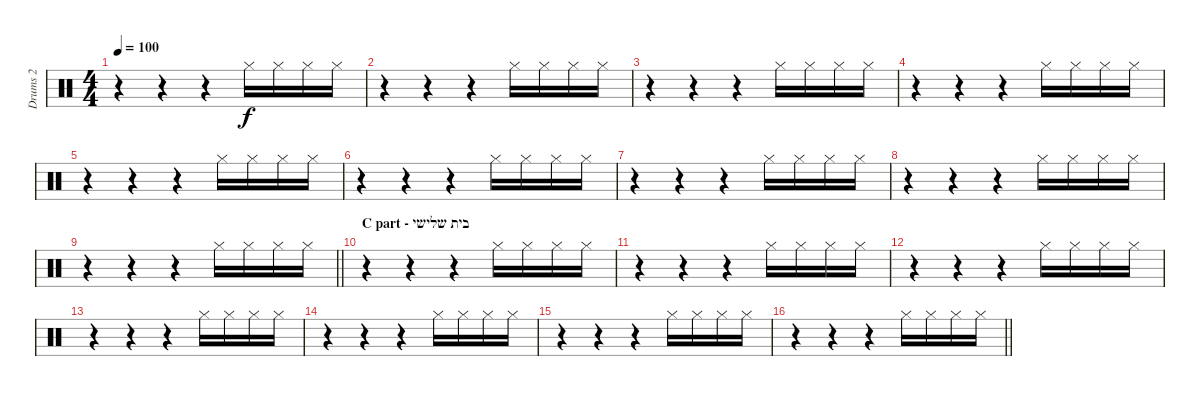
\track ("Drums 2" "Drums 2") {instrument percussion}
\staff {score}
\articulation defaults
\ts (4 4)
\tempo 100
\clef neutral
\ks c
r.4{dy f} r.4 r.4 "Hi-Hat (closed)".16 "Hi-Hat (closed)".16 "Hi-Hat (closed)".16 "Hi-Hat (closed)".16 |
r.4 r.4 r.4 "Hi-Hat (closed)".16 "Hi-Hat (closed)".16 "Hi-Hat (closed)".16 "Hi-Hat (closed)".16 |
r.4 r.4 r.4 "Hi-Hat (closed)".16 "Hi-Hat (closed)".16 "Hi-Hat (closed)".16 "Hi-Hat (closed)".16 |
r.4 r.4 r.4 "Hi-Hat (closed)".16 "Hi-Hat (closed)".16 "Hi-Hat (closed)".16 "Hi-Hat (closed)".16 |
r.4 r.4 r.4 "Hi-Hat (closed)".16 "Hi-Hat (closed)".16 "Hi-Hat (closed)".16 "Hi-Hat (closed)".16 |
r.4 r.4 r.4 "Hi-Hat (closed)".16 "Hi-Hat (closed)".16 "Hi-Hat (closed)".16 "Hi-Hat (closed)".16 |
r.4 r.4 r.4 "Hi-Hat (closed)".16 "Hi-Hat (closed)".16 "Hi-Hat (closed)".16 "Hi-Hat (closed)".16 |
r.4 r.4 r.4 "Hi-Hat (closed)".16 "Hi-Hat (closed)".16 "Hi-Hat (closed)".16 "Hi-Hat (closed)".16 |
\barLineRight lightlight
r.4 r.4 r.4 "Hi-Hat (closed)".16 "Hi-Hat (closed)".16 "Hi-Hat (closed)".16 "Hi-Hat (closed)".16 |
\section ("" "C part - בית שלישי")
r.4 r.4 r.4 "Hi-Hat (closed)".16 "Hi-Hat (closed)".16 "Hi-Hat (closed)".16 "Hi-Hat (closed)".16 |
r.4 r.4 r.4 "Hi-Hat (closed)".16 "Hi-Hat (closed)".16 "Hi-Hat (closed)".16 "Hi-Hat (closed)".16 |
r.4 r.4 r.4 "Hi-Hat (closed)".16 "Hi-Hat (closed)".16 "Hi-Hat (closed)".16 "Hi-Hat (closed)".16 |
r.4 r.4 r.4 "Hi-Hat (closed)".16 "Hi-Hat (closed)".16 "Hi-Hat (closed)".16 "Hi-Hat (closed)".16 |
r.4 r.4 r.4 "Hi-Hat (closed)".16 "Hi-Hat (closed)".16 "Hi-Hat (closed)".16 "Hi-Hat (closed)".16 |
r.4 r.4 r.4 "Hi-Hat (closed)".16 "Hi-Hat (closed)".16 "Hi-Hat (closed)".16 "Hi-Hat (closed)".16 |
\barLineRight lightlight
r.4 r.4 r.4 "Hi-Hat (closed)".16 "Hi-Hat (closed)".16 "Hi-Hat (closed)".16 "Hi-Hat (closed)".16
